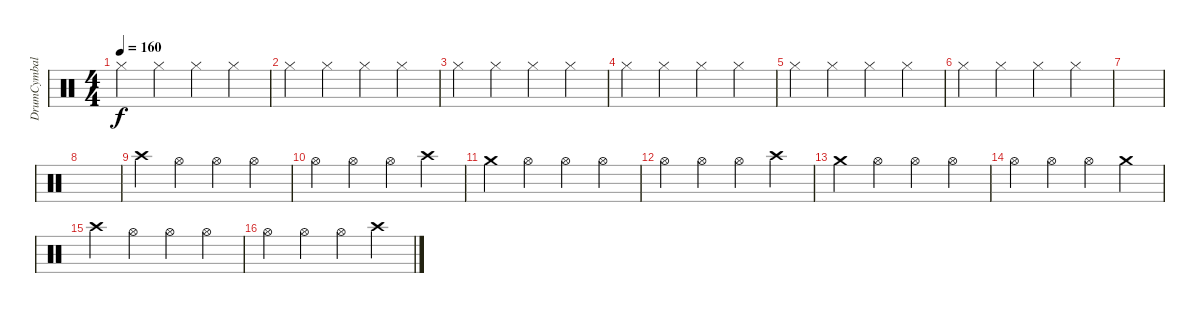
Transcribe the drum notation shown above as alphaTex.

\track ("DrumCymbal" "DrumCymbal") {instrument percussion}
\staff {score}
\articulation defaults
\ts (4 4)
\tempo 160
\clef neutral
\ks c "Hi-Hat (closed)".4{dy f} "Hi-Hat (closed)".4 "Hi-Hat (closed)".4 "Hi-Hat (closed)".4
|
"Hi-Hat (closed)".4 "Hi-Hat (closed)".4 "Hi-Hat (closed)".4 "Hi-Hat (closed)".4 |
"Hi-Hat (closed)".4 "Hi-Hat (closed)".4 "Hi-Hat (closed)".4 "Hi-Hat (closed)".4 |
"Hi-Hat (closed)".4 "Hi-Hat (closed)".4 "Hi-Hat (closed)".4 "Hi-Hat (closed)".4 |
"Hi-Hat (closed)".4 "Hi-Hat (closed)".4 "Hi-Hat (closed)".4 "Hi-Hat (closed)".4 |
"Hi-Hat (closed)".4 "Hi-Hat (closed)".4 "Hi-Hat (closed)".4 "Hi-Hat (closed)".4 |
|
|
"Crash high (hit)".4 "Hi-Hat (open)".4 "Hi-Hat (open)".4 "Hi-Hat (open)".4 |
"Hi-Hat (open)".4 "Hi-Hat (open)".4 "Hi-Hat (open)".4 "Crash high (hit)".4 |
"Crash medium (hit)".4 "Hi-Hat (open)".4 "Hi-Hat (open)".4 "Hi-Hat (open)".4 |
"Hi-Hat (open)".4 "Hi-Hat (open)".4 "Hi-Hat (open)".4 "Crash high (hit)".4 |
"Crash medium (hit)".4 "Hi-Hat (open)".4 "Hi-Hat (open)".4 "Hi-Hat (open)".4 |
"Hi-Hat (open)".4 "Hi-Hat (open)".4 "Hi-Hat (open)".4 "Crash medium (hit)".4 |
"Crash high (hit)".4 "Hi-Hat (open)".4 "Hi-Hat (open)".4 "Hi-Hat (open)".4 |
"Hi-Hat (open)".4 "Hi-Hat (open)".4 "Hi-Hat (open)".4 "Crash high (hit)".4
